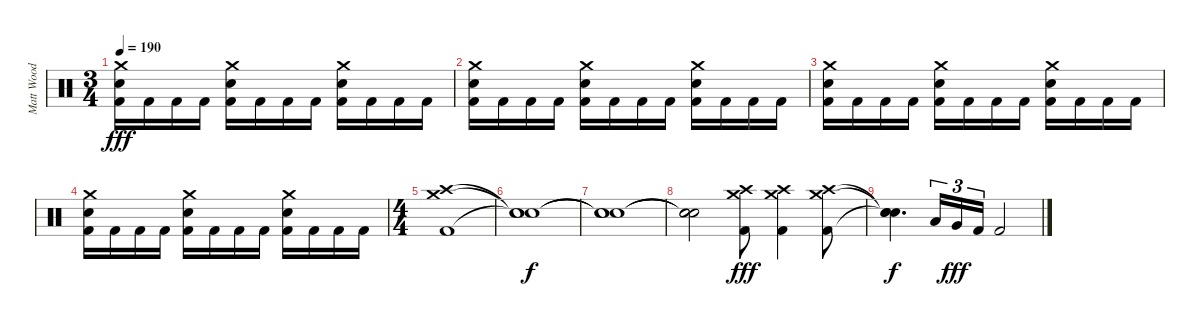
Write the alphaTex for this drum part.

\track ("Matt Wood" "Matt Wood") {instrument percussion}
\staff {score}
\articulation defaults
\ts (3 4)
\tempo 190
\clef neutral
\ks c
("Crash medium (hit)" "Snare (hit) 2" "Kick (hit) 2").16{dy fff} "Kick (hit) 2".16 "Kick (hit) 2".16 "Kick (hit) 2".16 ("Crash medium (hit)" "Snare (hit) 2" "Kick (hit) 2").16 "Kick (hit) 2".16 "Kick (hit) 2".16 "Kick (hit) 2".16 ("Crash medium (hit)" "Snare (hit) 2" "Kick (hit) 2").16 "Kick (hit) 2".16 "Kick (hit) 2".16 "Kick (hit) 2".16 |
("Crash medium (hit)" "Snare (hit) 2" "Kick (hit) 2").16 "Kick (hit) 2".16 "Kick (hit) 2".16 "Kick (hit) 2".16 ("Crash medium (hit)" "Snare (hit) 2" "Kick (hit) 2").16 "Kick (hit) 2".16 "Kick (hit) 2".16 "Kick (hit) 2".16 ("Crash medium (hit)" "Snare (hit) 2" "Kick (hit) 2").16 "Kick (hit) 2".16 "Kick (hit) 2".16 "Kick (hit) 2".16 |
("Crash medium (hit)" "Snare (hit) 2" "Kick (hit) 2").16 "Kick (hit) 2".16 "Kick (hit) 2".16 "Kick (hit) 2".16 ("Crash medium (hit)" "Snare (hit) 2" "Kick (hit) 2").16 "Kick (hit) 2".16 "Kick (hit) 2".16 "Kick (hit) 2".16 ("Crash medium (hit)" "Snare (hit) 2" "Kick (hit) 2").16 "Kick (hit) 2".16 "Kick (hit) 2".16 "Kick (hit) 2".16 |
("Crash medium (hit)" "Snare (hit) 2" "Kick (hit) 2").16 "Kick (hit) 2".16 "Kick (hit) 2".16 "Kick (hit) 2".16 ("Crash medium (hit)" "Snare (hit) 2" "Kick (hit) 2").16 "Kick (hit) 2".16 "Kick (hit) 2".16 "Kick (hit) 2".16 ("Crash medium (hit)" "Snare (hit) 2" "Kick (hit) 2").16 "Kick (hit) 2".16 "Kick (hit) 2".16 "Kick (hit) 2".16 |
\ts (4 4)
("Crash medium (hit)" "Crash high (hit)" "Kick (hit) 2").1 |
("Snare (hit)"{t} "Snare (hit)"{t} "Snare (hit)"{t}).1{dy f} |
("Snare (hit)"{t} "Snare (hit)"{t} "Snare (hit)"{t}).1 |
("Snare (hit)"{t} "Snare (hit)"{t} "Snare (hit)"{t}).2 ("Crash medium (hit)" "Crash high (hit)" "Kick (hit) 2").8{dy fff} ("Crash medium (hit)" "Crash high (hit)" "Kick (hit) 2").4 ("Crash medium (hit)" "Crash high (hit)" "Kick (hit) 2").8 |
("Snare (hit)"{t} "Snare (hit)"{t} "Snare (hit)"{t}).4{d dy f} "Low Tom (hit)".16{tu (3 2)} "Very Low Tom (hit)".16{tu (3 2) dy fff} "Kick (hit) 2".16{tu (3 2)} "Kick (hit) 2".2
